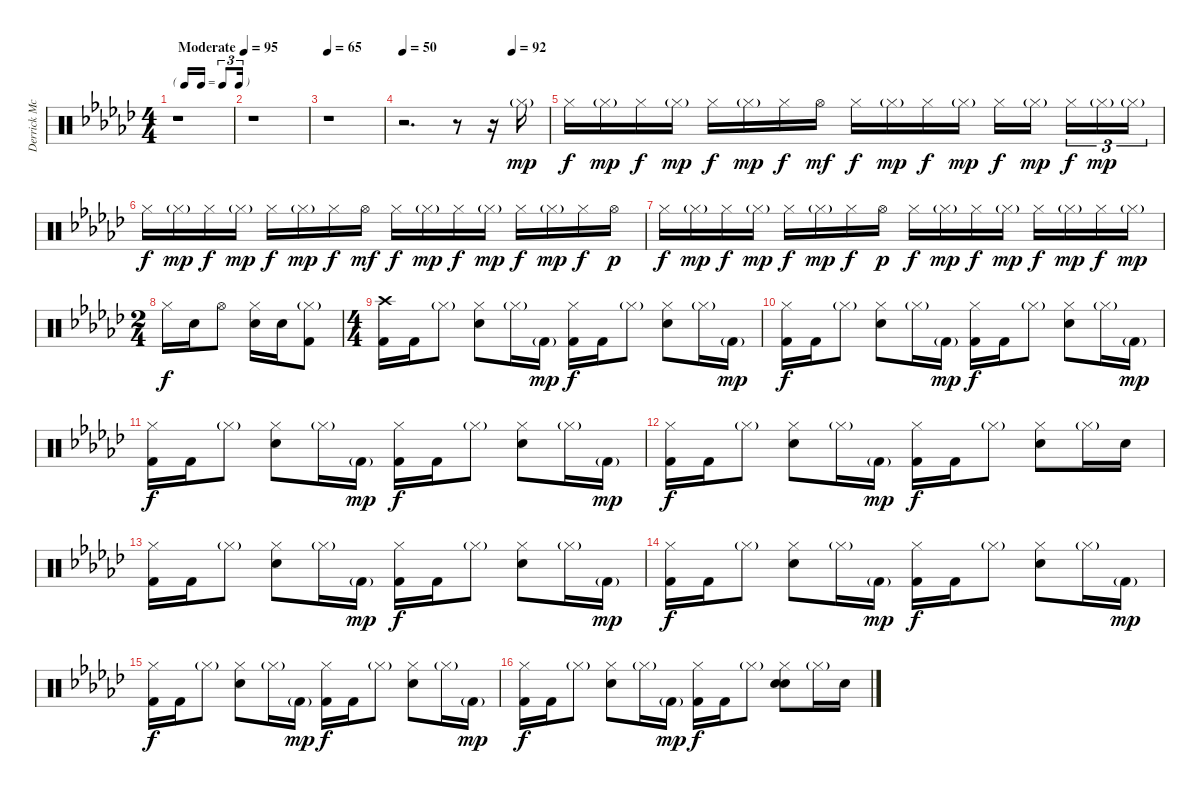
\track ("Derrick McKenzie" "Derrick Mc") {instrument percussion}
\staff {score}
\articulation defaults
\ts (4 4)
\tf triplet16th
\tempo (95 "Moderate")
\tempo 85
\tempo (95 "Moderate")
\clef neutral
\ks ebminor
r.1{dy mp} |
r.1 |
\tempo 65
r.1 |
\tempo 50
\tempo (92 0.75)
r.2{d} r.8 r.16 "Hi-Hat (closed)"{g}.16 |
"Hi-Hat (closed)".16{dy f} "Hi-Hat (closed)"{g}.16{dy mp} "Hi-Hat (closed)".16{dy f} "Hi-Hat (closed)"{g}.16{dy mp} "Hi-Hat (closed)".16{dy f} "Hi-Hat (closed)"{g}.16{dy mp} "Hi-Hat (closed)".16{dy f} "Hi-Hat (open)".16{dy mf} "Hi-Hat (closed)".16{dy f} "Hi-Hat (closed)"{g}.16{dy mp} "Hi-Hat (closed)".16{dy f} "Hi-Hat (closed)"{g}.16{dy mp} "Hi-Hat (closed)".16{dy f} "Hi-Hat (closed)"{g}.16{dy mp beam splitsecondary} "Hi-Hat (closed)".16{tu (3 2) dy f} "Hi-Hat (closed)"{g}.16{tu (3 2) dy mp} "Hi-Hat (closed)"{g}.16{tu (3 2)} |
"Hi-Hat (closed)".16{dy f} "Hi-Hat (closed)"{g}.16{dy mp} "Hi-Hat (closed)".16{dy f} "Hi-Hat (closed)"{g}.16{dy mp} "Hi-Hat (closed)".16{dy f} "Hi-Hat (closed)"{g}.16{dy mp} "Hi-Hat (closed)".16{dy f} "Hi-Hat (open)".16{dy mf} "Hi-Hat (closed)".16{dy f} "Hi-Hat (closed)"{g}.16{dy mp} "Hi-Hat (closed)".16{dy f} "Hi-Hat (closed)"{g}.16{dy mp} "Hi-Hat (closed)".16{dy f} "Hi-Hat (closed)"{g}.16{dy mp} "Hi-Hat (closed)".16{dy f} "Hi-Hat (open)".16{dy p} |
"Hi-Hat (closed)".16{dy f} "Hi-Hat (closed)"{g}.16{dy mp} "Hi-Hat (closed)".16{dy f} "Hi-Hat (closed)"{g}.16{dy mp} "Hi-Hat (closed)".16{dy f} "Hi-Hat (closed)"{g}.16{dy mp} "Hi-Hat (closed)".16{dy f} "Hi-Hat (open)".16{dy p} "Hi-Hat (closed)".16{dy f} "Hi-Hat (closed)"{g}.16{dy mp} "Hi-Hat (closed)".16{dy f} "Hi-Hat (closed)"{g}.16{dy mp} "Hi-Hat (closed)".16{dy f} "Hi-Hat (closed)"{g}.16{dy mp} "Hi-Hat (closed)".16{dy f} "Hi-Hat (closed)"{g}.16{dy mp} |
\ts (2 4)
"Hi-Hat (closed)".16{dy f} "Electric Snare (hit)".16 "Hi-Hat (open)".8 ("Hi-Hat (closed)" "Electric Snare (hit)").16 "Electric Snare (hit)".16 ("Hi-Hat (closed)"{g} "Kick (hit) 2").8 |
\ts (4 4)
("Crash high (hit)" "Kick (hit) 2").16 "Kick (hit) 2".16 "Hi-Hat (closed)"{g}.8 ("Hi-Hat (closed)" "Electric Snare (hit)").8 "Hi-Hat (closed)"{g}.16 "Kick (hit) 2"{g}.16{dy mp} ("Hi-Hat (closed)" "Kick (hit) 2").16{dy f} "Kick (hit) 2".16 "Hi-Hat (closed)"{g}.8 ("Hi-Hat (closed)" "Electric Snare (hit)").8 "Hi-Hat (closed)"{g}.16 "Kick (hit) 2"{g}.16{dy mp} |
("Hi-Hat (closed)" "Kick (hit) 2").16{dy f} "Kick (hit) 2".16 "Hi-Hat (closed)"{g}.8 ("Hi-Hat (closed)" "Electric Snare (hit)").8 "Hi-Hat (closed)"{g}.16 "Kick (hit) 2"{g}.16{dy mp} ("Hi-Hat (closed)" "Kick (hit) 2").16{dy f} "Kick (hit) 2".16 "Hi-Hat (closed)"{g}.8 ("Hi-Hat (closed)" "Electric Snare (hit)").8 "Hi-Hat (closed)"{g}.16 "Kick (hit) 2"{g}.16{dy mp} |
("Hi-Hat (closed)" "Kick (hit) 2").16{dy f} "Kick (hit) 2".16 "Hi-Hat (closed)"{g}.8 ("Hi-Hat (closed)" "Electric Snare (hit)").8 "Hi-Hat (closed)"{g}.16 "Kick (hit) 2"{g}.16{dy mp} ("Hi-Hat (closed)" "Kick (hit) 2").16{dy f} "Kick (hit) 2".16 "Hi-Hat (closed)"{g}.8 ("Hi-Hat (closed)" "Electric Snare (hit)").8 "Hi-Hat (closed)"{g}.16 "Kick (hit) 2"{g}.16{dy mp} |
("Hi-Hat (closed)" "Kick (hit) 2").16{dy f} "Kick (hit) 2".16 "Hi-Hat (closed)"{g}.8 ("Hi-Hat (closed)" "Electric Snare (hit)").8 "Hi-Hat (closed)"{g}.16 "Kick (hit) 2"{g}.16{dy mp} ("Hi-Hat (closed)" "Kick (hit) 2").16{dy f} "Kick (hit) 2".16 "Hi-Hat (closed)"{g}.8 ("Hi-Hat (closed)" "Electric Snare (hit)").8 "Hi-Hat (closed)"{g}.16 "Electric Snare (hit)".16 |
("Hi-Hat (closed)" "Kick (hit) 2").16 "Kick (hit) 2".16 "Hi-Hat (closed)"{g}.8 ("Hi-Hat (closed)" "Electric Snare (hit)").8 "Hi-Hat (closed)"{g}.16 "Kick (hit) 2"{g}.16{dy mp} ("Hi-Hat (closed)" "Kick (hit) 2").16{dy f} "Kick (hit) 2".16 "Hi-Hat (closed)"{g}.8 ("Hi-Hat (closed)" "Electric Snare (hit)").8 "Hi-Hat (closed)"{g}.16 "Kick (hit) 2"{g}.16{dy mp} |
("Hi-Hat (closed)" "Kick (hit) 2").16{dy f} "Kick (hit) 2".16 "Hi-Hat (closed)"{g}.8 ("Hi-Hat (closed)" "Electric Snare (hit)").8 "Hi-Hat (closed)"{g}.16 "Kick (hit) 2"{g}.16{dy mp} ("Hi-Hat (closed)" "Kick (hit) 2").16{dy f} "Kick (hit) 2".16 "Hi-Hat (closed)"{g}.8 ("Hi-Hat (closed)" "Electric Snare (hit)").8 "Hi-Hat (closed)"{g}.16 "Kick (hit) 2"{g}.16{dy mp} |
("Hi-Hat (closed)" "Kick (hit) 2").16{dy f} "Kick (hit) 2".16 "Hi-Hat (closed)"{g}.8 ("Hi-Hat (closed)" "Electric Snare (hit)").8 "Hi-Hat (closed)"{g}.16 "Kick (hit) 2"{g}.16{dy mp} ("Hi-Hat (closed)" "Kick (hit) 2").16{dy f} "Kick (hit) 2".16 "Hi-Hat (closed)"{g}.8 ("Hi-Hat (closed)" "Electric Snare (hit)").8 "Hi-Hat (closed)"{g}.16 "Kick (hit) 2"{g}.16{dy mp} |
("Hi-Hat (closed)" "Kick (hit) 2").16{dy f} "Kick (hit) 2".16 "Hi-Hat (closed)"{g}.8 ("Hi-Hat (closed)" "Electric Snare (hit)").8 "Hi-Hat (closed)"{g}.16 "Kick (hit) 2"{g}.16{dy mp} ("Hi-Hat (closed)" "Kick (hit) 2").16{dy f} "Kick (hit) 2".16 "Hi-Hat (closed)"{g}.8 ("Hi-Hat (closed)" "Hand Clap (hit)" "Electric Snare (hit)").8 "Hi-Hat (closed)"{g}.16 "Electric Snare (hit)".16
